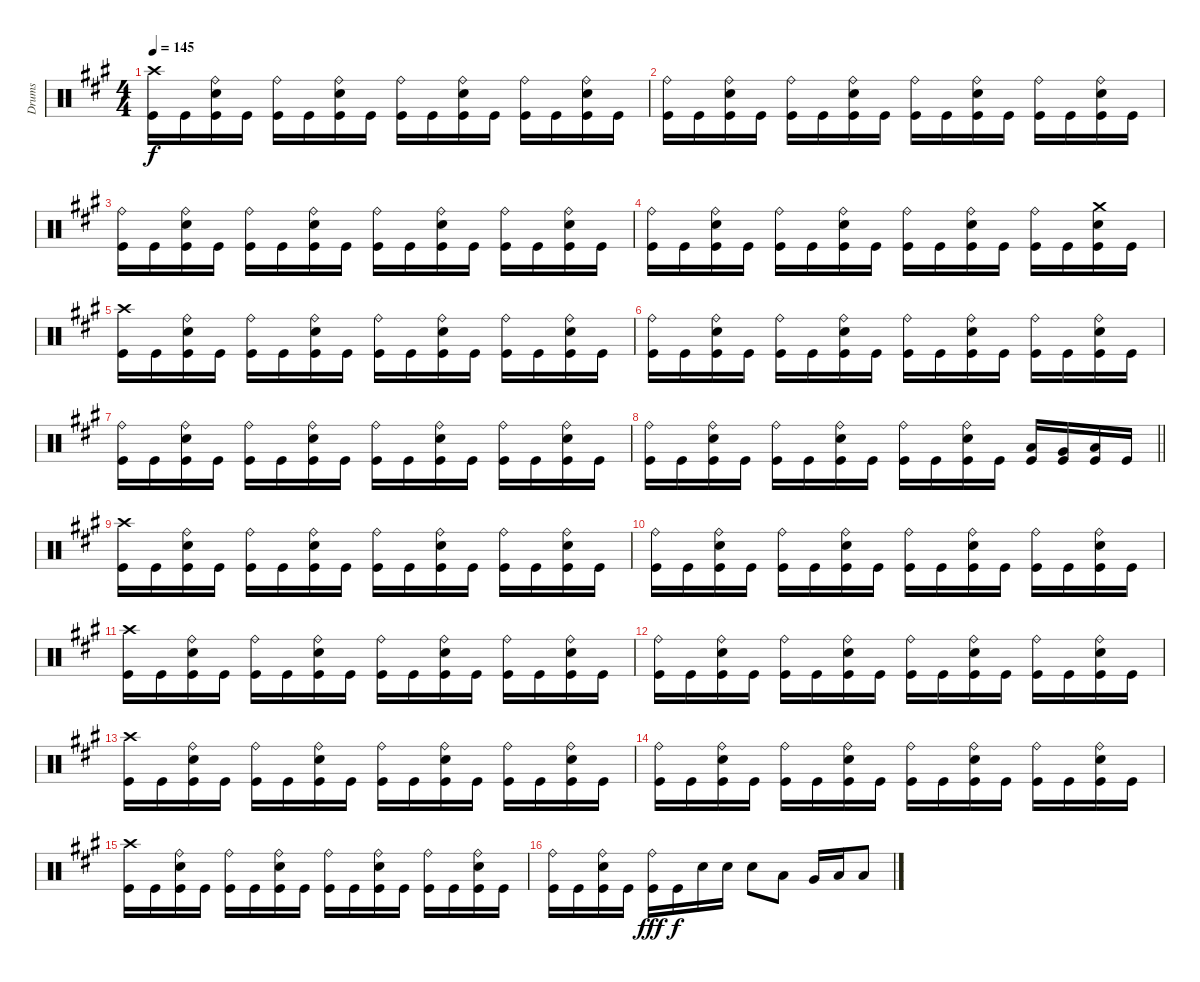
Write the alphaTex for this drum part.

\track ("Drums" "Drums") {instrument percussion}
\staff {score}
\articulation defaults
\ts (4 4)
\tempo 145
\clef neutral
\ks f#minor
("Crash high (hit)" "Kick (hit)").16{dy f} "Kick (hit)".16 ("Ride (bell)" "Snare (hit) 2" "Kick (hit)").16 "Kick (hit)".16 ("Ride (bell)" "Kick (hit)").16 "Kick (hit)".16 ("Ride (bell)" "Snare (hit) 2" "Kick (hit)").16 "Kick (hit)".16 ("Ride (bell)" "Kick (hit)").16 "Kick (hit)".16 ("Ride (bell)" "Snare (hit) 2" "Kick (hit)").16 "Kick (hit)".16 ("Ride (bell)" "Kick (hit)").16 "Kick (hit)".16 ("Ride (bell)" "Snare (hit) 2" "Kick (hit)").16 "Kick (hit)".16 |
("Ride (bell)" "Kick (hit)").16 "Kick (hit)".16 ("Ride (bell)" "Snare (hit) 2" "Kick (hit)").16 "Kick (hit)".16 ("Ride (bell)" "Kick (hit)").16 "Kick (hit)".16 ("Ride (bell)" "Snare (hit) 2" "Kick (hit)").16 "Kick (hit)".16 ("Ride (bell)" "Kick (hit)").16 "Kick (hit)".16 ("Ride (bell)" "Snare (hit) 2" "Kick (hit)").16 "Kick (hit)".16 ("Ride (bell)" "Kick (hit)").16 "Kick (hit)".16 ("Ride (bell)" "Snare (hit) 2" "Kick (hit)").16 "Kick (hit)".16 |
("Ride (bell)" "Kick (hit)").16 "Kick (hit)".16 ("Ride (bell)" "Snare (hit) 2" "Kick (hit)").16 "Kick (hit)".16 ("Ride (bell)" "Kick (hit)").16 "Kick (hit)".16 ("Ride (bell)" "Snare (hit) 2" "Kick (hit)").16 "Kick (hit)".16 ("Ride (bell)" "Kick (hit)").16 "Kick (hit)".16 ("Ride (bell)" "Snare (hit) 2" "Kick (hit)").16 "Kick (hit)".16 ("Ride (bell)" "Kick (hit)").16 "Kick (hit)".16 ("Ride (bell)" "Snare (hit) 2" "Kick (hit)").16 "Kick (hit)".16 |
("Ride (bell)" "Kick (hit)").16 "Kick (hit)".16 ("Ride (bell)" "Snare (hit) 2" "Kick (hit)").16 "Kick (hit)".16 ("Ride (bell)" "Kick (hit)").16 "Kick (hit)".16 ("Ride (bell)" "Snare (hit) 2" "Kick (hit)").16 "Kick (hit)".16 ("Ride (bell)" "Kick (hit)").16 "Kick (hit)".16 ("Ride (bell)" "Snare (hit) 2" "Kick (hit)").16 "Kick (hit)".16 ("Ride (bell)" "Kick (hit)").16 "Kick (hit)".16 ("Crash medium (hit)" "Snare (hit) 2" "Kick (hit)").16 "Kick (hit)".16 |
("Crash high (hit)" "Kick (hit)").16 "Kick (hit)".16 ("Ride (bell)" "Snare (hit) 2" "Kick (hit)").16 "Kick (hit)".16 ("Ride (bell)" "Kick (hit)").16 "Kick (hit)".16 ("Ride (bell)" "Snare (hit) 2" "Kick (hit)").16 "Kick (hit)".16 ("Ride (bell)" "Kick (hit)").16 "Kick (hit)".16 ("Ride (bell)" "Snare (hit) 2" "Kick (hit)").16 "Kick (hit)".16 ("Ride (bell)" "Kick (hit)").16 "Kick (hit)".16 ("Ride (bell)" "Snare (hit) 2" "Kick (hit)").16 "Kick (hit)".16 |
("Ride (bell)" "Kick (hit)").16 "Kick (hit)".16 ("Ride (bell)" "Snare (hit) 2" "Kick (hit)").16 "Kick (hit)".16 ("Ride (bell)" "Kick (hit)").16 "Kick (hit)".16 ("Ride (bell)" "Snare (hit) 2" "Kick (hit)").16 "Kick (hit)".16 ("Ride (bell)" "Kick (hit)").16 "Kick (hit)".16 ("Ride (bell)" "Snare (hit) 2" "Kick (hit)").16 "Kick (hit)".16 ("Ride (bell)" "Kick (hit)").16 "Kick (hit)".16 ("Ride (bell)" "Snare (hit) 2" "Kick (hit)").16 "Kick (hit)".16 |
("Ride (bell)" "Kick (hit)").16 "Kick (hit)".16 ("Ride (bell)" "Snare (hit) 2" "Kick (hit)").16 "Kick (hit)".16 ("Ride (bell)" "Kick (hit)").16 "Kick (hit)".16 ("Ride (bell)" "Snare (hit) 2" "Kick (hit)").16 "Kick (hit)".16 ("Ride (bell)" "Kick (hit)").16 "Kick (hit)".16 ("Ride (bell)" "Snare (hit) 2" "Kick (hit)").16 "Kick (hit)".16 ("Ride (bell)" "Kick (hit)").16 "Kick (hit)".16 ("Ride (bell)" "Snare (hit) 2" "Kick (hit)").16 "Kick (hit)".16 |
\barLineRight lightlight
("Ride (bell)" "Kick (hit)").16 "Kick (hit)".16 ("Ride (bell)" "Snare (hit) 2" "Kick (hit)").16 "Kick (hit)".16 ("Ride (bell)" "Kick (hit)").16 "Kick (hit)".16 ("Ride (bell)" "Snare (hit) 2" "Kick (hit)").16 "Kick (hit)".16 ("Ride (bell)" "Kick (hit)").16 "Kick (hit)".16 ("Ride (bell)" "Snare (hit) 2" "Kick (hit)").16 "Kick (hit)".16 ("Low Tom (hit)" "Kick (hit)").16 ("Very Low Tom (hit)" "Kick (hit)").16 ("Low Floor Tom (hit)" "Kick (hit)").16 "Kick (hit)".16 |
("Crash high (hit)" "Kick (hit)").16 "Kick (hit)".16 ("Ride (bell)" "Snare (hit) 2" "Kick (hit)").16 "Kick (hit)".16 ("Ride (bell)" "Kick (hit)").16 "Kick (hit)".16 ("Ride (bell)" "Snare (hit) 2" "Kick (hit)").16 "Kick (hit)".16 ("Ride (bell)" "Kick (hit)").16 "Kick (hit)".16 ("Ride (bell)" "Snare (hit) 2" "Kick (hit)").16 "Kick (hit)".16 ("Ride (bell)" "Kick (hit)").16 "Kick (hit)".16 ("Ride (bell)" "Snare (hit) 2" "Kick (hit)").16 "Kick (hit)".16 |
("Ride (bell)" "Kick (hit)").16 "Kick (hit)".16 ("Ride (bell)" "Snare (hit) 2" "Kick (hit)").16 "Kick (hit)".16 ("Ride (bell)" "Kick (hit)").16 "Kick (hit)".16 ("Ride (bell)" "Snare (hit) 2" "Kick (hit)").16 "Kick (hit)".16 ("Ride (bell)" "Kick (hit)").16 "Kick (hit)".16 ("Ride (bell)" "Snare (hit) 2" "Kick (hit)").16 "Kick (hit)".16 ("Ride (bell)" "Kick (hit)").16 "Kick (hit)".16 ("Ride (bell)" "Snare (hit) 2" "Kick (hit)").16 "Kick (hit)".16 |
("Crash high (hit)" "Kick (hit)").16 "Kick (hit)".16 ("Ride (bell)" "Snare (hit) 2" "Kick (hit)").16 "Kick (hit)".16 ("Ride (bell)" "Kick (hit)").16 "Kick (hit)".16 ("Ride (bell)" "Snare (hit) 2" "Kick (hit)").16 "Kick (hit)".16 ("Ride (bell)" "Kick (hit)").16 "Kick (hit)".16 ("Ride (bell)" "Snare (hit) 2" "Kick (hit)").16 "Kick (hit)".16 ("Ride (bell)" "Kick (hit)").16 "Kick (hit)".16 ("Ride (bell)" "Snare (hit) 2" "Kick (hit)").16 "Kick (hit)".16 |
("Ride (bell)" "Kick (hit)").16 "Kick (hit)".16 ("Ride (bell)" "Snare (hit) 2" "Kick (hit)").16 "Kick (hit)".16 ("Ride (bell)" "Kick (hit)").16 "Kick (hit)".16 ("Ride (bell)" "Snare (hit) 2" "Kick (hit)").16 "Kick (hit)".16 ("Ride (bell)" "Kick (hit)").16 "Kick (hit)".16 ("Ride (bell)" "Snare (hit) 2" "Kick (hit)").16 "Kick (hit)".16 ("Ride (bell)" "Kick (hit)").16 "Kick (hit)".16 ("Ride (bell)" "Snare (hit) 2" "Kick (hit)").16 "Kick (hit)".16 |
("Crash high (hit)" "Kick (hit)").16 "Kick (hit)".16 ("Ride (bell)" "Snare (hit) 2" "Kick (hit)").16 "Kick (hit)".16 ("Ride (bell)" "Kick (hit)").16 "Kick (hit)".16 ("Ride (bell)" "Snare (hit) 2" "Kick (hit)").16 "Kick (hit)".16 ("Ride (bell)" "Kick (hit)").16 "Kick (hit)".16 ("Ride (bell)" "Snare (hit) 2" "Kick (hit)").16 "Kick (hit)".16 ("Ride (bell)" "Kick (hit)").16 "Kick (hit)".16 ("Ride (bell)" "Snare (hit) 2" "Kick (hit)").16 "Kick (hit)".16 |
("Ride (bell)" "Kick (hit)").16 "Kick (hit)".16 ("Ride (bell)" "Snare (hit) 2" "Kick (hit)").16 "Kick (hit)".16 ("Ride (bell)" "Kick (hit)").16 "Kick (hit)".16 ("Ride (bell)" "Snare (hit) 2" "Kick (hit)").16 "Kick (hit)".16 ("Ride (bell)" "Kick (hit)").16 "Kick (hit)".16 ("Ride (bell)" "Snare (hit) 2" "Kick (hit)").16 "Kick (hit)".16 ("Ride (bell)" "Kick (hit)").16 "Kick (hit)".16 ("Ride (bell)" "Snare (hit) 2" "Kick (hit)").16 "Kick (hit)".16 |
("Crash high (hit)" "Kick (hit)").16 "Kick (hit)".16 ("Ride (bell)" "Snare (hit) 2" "Kick (hit)").16 "Kick (hit)".16 ("Ride (bell)" "Kick (hit)").16 "Kick (hit)".16 ("Ride (bell)" "Snare (hit) 2" "Kick (hit)").16 "Kick (hit)".16 ("Ride (bell)" "Kick (hit)").16 "Kick (hit)".16 ("Ride (bell)" "Snare (hit) 2" "Kick (hit)").16 "Kick (hit)".16 ("Ride (bell)" "Kick (hit)").16 "Kick (hit)".16 ("Ride (bell)" "Snare (hit) 2" "Kick (hit)").16 "Kick (hit)".16 |
("Ride (bell)" "Kick (hit)").16 "Kick (hit)".16 ("Ride (bell)" "Snare (hit) 2" "Kick (hit)").16 "Kick (hit)".16 ("Ride (bell)" "Kick (hit)").16{dy fff} "Kick (hit)".16{dy f} "Snare (hit) 2".16 "Snare (hit) 2".16 "Snare (hit) 2".8 "Low Tom (hit)".8 "Very Low Tom (hit)".16 "Low Tom (hit)".16 "Low Floor Tom (hit)".8
